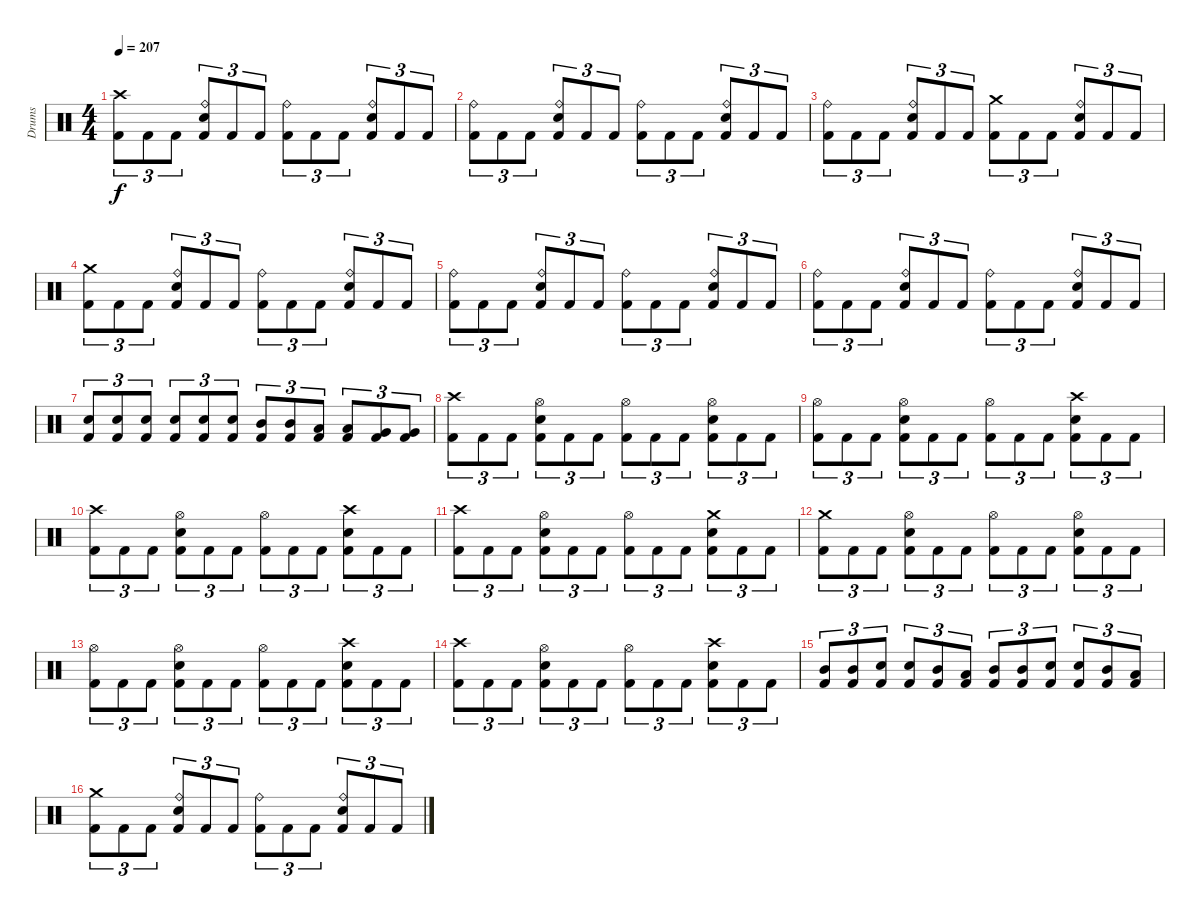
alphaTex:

\track ("Drums" "Drums") {instrument percussion}
\staff {score}
\articulation defaults
\ts (4 4)
\tempo 207
\clef neutral
\ks c
("Crash high (hit)" "Kick (hit) 2").8{tu (3 2) dy f} "Kick (hit) 2".8{tu (3 2)} "Kick (hit) 2".8{tu (3 2)} ("Ride (bell)" "Electric Snare (hit)" "Kick (hit) 2").8{tu (3 2)} "Kick (hit) 2".8{tu (3 2)} "Kick (hit) 2".8{tu (3 2)} ("Ride (bell)" "Kick (hit) 2").8{tu (3 2)} "Kick (hit) 2".8{tu (3 2)} "Kick (hit) 2".8{tu (3 2)} ("Ride (bell)" "Electric Snare (hit)" "Kick (hit) 2").8{tu (3 2)} "Kick (hit) 2".8{tu (3 2)} "Kick (hit) 2".8{tu (3 2)} |
("Ride (bell)" "Kick (hit) 2").8{tu (3 2)} "Kick (hit) 2".8{tu (3 2)} "Kick (hit) 2".8{tu (3 2)} ("Ride (bell)" "Electric Snare (hit)" "Kick (hit) 2").8{tu (3 2)} "Kick (hit) 2".8{tu (3 2)} "Kick (hit) 2".8{tu (3 2)} ("Ride (bell)" "Kick (hit) 2").8{tu (3 2)} "Kick (hit) 2".8{tu (3 2)} "Kick (hit) 2".8{tu (3 2)} ("Ride (bell)" "Electric Snare (hit)" "Kick (hit) 2").8{tu (3 2)} "Kick (hit) 2".8{tu (3 2)} "Kick (hit) 2".8{tu (3 2)} |
("Ride (bell)" "Kick (hit) 2").8{tu (3 2)} "Kick (hit) 2".8{tu (3 2)} "Kick (hit) 2".8{tu (3 2)} ("Ride (bell)" "Electric Snare (hit)" "Kick (hit) 2").8{tu (3 2)} "Kick (hit) 2".8{tu (3 2)} "Kick (hit) 2".8{tu (3 2)} ("Crash medium (hit)" "Kick (hit) 2").8{tu (3 2)} "Kick (hit) 2".8{tu (3 2)} "Kick (hit) 2".8{tu (3 2)} ("Ride (bell)" "Electric Snare (hit)" "Kick (hit) 2").8{tu (3 2)} "Kick (hit) 2".8{tu (3 2)} "Kick (hit) 2".8{tu (3 2)} |
("Crash medium (hit)" "Kick (hit) 2").8{tu (3 2)} "Kick (hit) 2".8{tu (3 2)} "Kick (hit) 2".8{tu (3 2)} ("Ride (bell)" "Electric Snare (hit)" "Kick (hit) 2").8{tu (3 2)} "Kick (hit) 2".8{tu (3 2)} "Kick (hit) 2".8{tu (3 2)} ("Ride (bell)" "Kick (hit) 2").8{tu (3 2)} "Kick (hit) 2".8{tu (3 2)} "Kick (hit) 2".8{tu (3 2)} ("Ride (bell)" "Electric Snare (hit)" "Kick (hit) 2").8{tu (3 2)} "Kick (hit) 2".8{tu (3 2)} "Kick (hit) 2".8{tu (3 2)} |
("Ride (bell)" "Kick (hit) 2").8{tu (3 2)} "Kick (hit) 2".8{tu (3 2)} "Kick (hit) 2".8{tu (3 2)} ("Ride (bell)" "Electric Snare (hit)" "Kick (hit) 2").8{tu (3 2)} "Kick (hit) 2".8{tu (3 2)} "Kick (hit) 2".8{tu (3 2)} ("Ride (bell)" "Kick (hit) 2").8{tu (3 2)} "Kick (hit) 2".8{tu (3 2)} "Kick (hit) 2".8{tu (3 2)} ("Ride (bell)" "Electric Snare (hit)" "Kick (hit) 2").8{tu (3 2)} "Kick (hit) 2".8{tu (3 2)} "Kick (hit) 2".8{tu (3 2)} |
("Ride (bell)" "Kick (hit) 2").8{tu (3 2)} "Kick (hit) 2".8{tu (3 2)} "Kick (hit) 2".8{tu (3 2)} ("Ride (bell)" "Electric Snare (hit)" "Kick (hit) 2").8{tu (3 2)} "Kick (hit) 2".8{tu (3 2)} "Kick (hit) 2".8{tu (3 2)} ("Ride (bell)" "Kick (hit) 2").8{tu (3 2)} "Kick (hit) 2".8{tu (3 2)} "Kick (hit) 2".8{tu (3 2)} ("Ride (bell)" "Electric Snare (hit)" "Kick (hit) 2").8{tu (3 2)} "Kick (hit) 2".8{tu (3 2)} "Kick (hit) 2".8{tu (3 2)} |
("Electric Snare (hit)" "Kick (hit) 2").8{tu (3 2)} ("Electric Snare (hit)" "Kick (hit) 2").8{tu (3 2)} ("Electric Snare (hit)" "Kick (hit) 2").8{tu (3 2)} ("Electric Snare (hit)" "Kick (hit) 2").8{tu (3 2)} ("Electric Snare (hit)" "Kick (hit) 2").8{tu (3 2)} ("Electric Snare (hit)" "Kick (hit) 2").8{tu (3 2)} ("Mid Tom (hit)" "Kick (hit) 2").8{tu (3 2)} ("Mid Tom (hit)" "Kick (hit) 2").8{tu (3 2)} ("Low Tom (hit)" "Kick (hit) 2").8{tu (3 2)} ("Low Tom (hit)" "Kick (hit) 2").8{tu (3 2)} ("Very Low Tom (hit)" "Kick (hit) 2").8{tu (3 2)} ("Very Low Tom (hit)" "Kick (hit) 2").8{tu (3 2)} |
("Crash high (hit)" "Kick (hit) 2").8{tu (3 2)} "Kick (hit) 2".8{tu (3 2)} "Kick (hit) 2".8{tu (3 2)} ("Hi-Hat (open)" "Electric Snare (hit)" "Kick (hit) 2").8{tu (3 2)} "Kick (hit) 2".8{tu (3 2)} "Kick (hit) 2".8{tu (3 2)} ("Hi-Hat (open)" "Kick (hit) 2").8{tu (3 2)} "Kick (hit) 2".8{tu (3 2)} "Kick (hit) 2".8{tu (3 2)} ("Hi-Hat (open)" "Electric Snare (hit)" "Kick (hit) 2").8{tu (3 2)} "Kick (hit) 2".8{tu (3 2)} "Kick (hit) 2".8{tu (3 2)} |
("Hi-Hat (open)" "Kick (hit) 2").8{tu (3 2)} "Kick (hit) 2".8{tu (3 2)} "Kick (hit) 2".8{tu (3 2)} ("Hi-Hat (open)" "Electric Snare (hit)" "Kick (hit) 2").8{tu (3 2)} "Kick (hit) 2".8{tu (3 2)} "Kick (hit) 2".8{tu (3 2)} ("Hi-Hat (open)" "Kick (hit) 2").8{tu (3 2)} "Kick (hit) 2".8{tu (3 2)} "Kick (hit) 2".8{tu (3 2)} ("Crash high (hit)" "Electric Snare (hit)" "Kick (hit) 2").8{tu (3 2)} "Kick (hit) 2".8{tu (3 2)} "Kick (hit) 2".8{tu (3 2)} |
("Crash high (hit)" "Kick (hit) 2").8{tu (3 2)} "Kick (hit) 2".8{tu (3 2)} "Kick (hit) 2".8{tu (3 2)} ("Hi-Hat (open)" "Electric Snare (hit)" "Kick (hit) 2").8{tu (3 2)} "Kick (hit) 2".8{tu (3 2)} "Kick (hit) 2".8{tu (3 2)} ("Hi-Hat (open)" "Kick (hit) 2").8{tu (3 2)} "Kick (hit) 2".8{tu (3 2)} "Kick (hit) 2".8{tu (3 2)} ("Crash high (hit)" "Electric Snare (hit)" "Kick (hit) 2").8{tu (3 2)} "Kick (hit) 2".8{tu (3 2)} "Kick (hit) 2".8{tu (3 2)} |
("Crash high (hit)" "Kick (hit) 2").8{tu (3 2)} "Kick (hit) 2".8{tu (3 2)} "Kick (hit) 2".8{tu (3 2)} ("Hi-Hat (open)" "Electric Snare (hit)" "Kick (hit) 2").8{tu (3 2)} "Kick (hit) 2".8{tu (3 2)} "Kick (hit) 2".8{tu (3 2)} ("Hi-Hat (open)" "Kick (hit) 2").8{tu (3 2)} "Kick (hit) 2".8{tu (3 2)} "Kick (hit) 2".8{tu (3 2)} ("Crash medium (hit)" "Electric Snare (hit)" "Kick (hit) 2").8{tu (3 2)} "Kick (hit) 2".8{tu (3 2)} "Kick (hit) 2".8{tu (3 2)} |
("Crash medium (hit)" "Kick (hit) 2").8{tu (3 2)} "Kick (hit) 2".8{tu (3 2)} "Kick (hit) 2".8{tu (3 2)} ("Hi-Hat (open)" "Electric Snare (hit)" "Kick (hit) 2").8{tu (3 2)} "Kick (hit) 2".8{tu (3 2)} "Kick (hit) 2".8{tu (3 2)} ("Hi-Hat (open)" "Kick (hit) 2").8{tu (3 2)} "Kick (hit) 2".8{tu (3 2)} "Kick (hit) 2".8{tu (3 2)} ("Hi-Hat (open)" "Electric Snare (hit)" "Kick (hit) 2").8{tu (3 2)} "Kick (hit) 2".8{tu (3 2)} "Kick (hit) 2".8{tu (3 2)} |
("Hi-Hat (open)" "Kick (hit) 2").8{tu (3 2)} "Kick (hit) 2".8{tu (3 2)} "Kick (hit) 2".8{tu (3 2)} ("Hi-Hat (open)" "Electric Snare (hit)" "Kick (hit) 2").8{tu (3 2)} "Kick (hit) 2".8{tu (3 2)} "Kick (hit) 2".8{tu (3 2)} ("Hi-Hat (open)" "Kick (hit) 2").8{tu (3 2)} "Kick (hit) 2".8{tu (3 2)} "Kick (hit) 2".8{tu (3 2)} ("Crash high (hit)" "Electric Snare (hit)" "Kick (hit) 2").8{tu (3 2)} "Kick (hit) 2".8{tu (3 2)} "Kick (hit) 2".8{tu (3 2)} |
("Crash high (hit)" "Kick (hit) 2").8{tu (3 2)} "Kick (hit) 2".8{tu (3 2)} "Kick (hit) 2".8{tu (3 2)} ("Hi-Hat (open)" "Electric Snare (hit)" "Kick (hit) 2").8{tu (3 2)} "Kick (hit) 2".8{tu (3 2)} "Kick (hit) 2".8{tu (3 2)} ("Hi-Hat (open)" "Kick (hit) 2").8{tu (3 2)} "Kick (hit) 2".8{tu (3 2)} "Kick (hit) 2".8{tu (3 2)} ("Crash high (hit)" "Electric Snare (hit)" "Kick (hit) 2").8{tu (3 2)} "Kick (hit) 2".8{tu (3 2)} "Kick (hit) 2".8{tu (3 2)} |
("Mid Tom (hit)" "Kick (hit) 2").8{tu (3 2)} ("Mid Tom (hit)" "Kick (hit) 2").8{tu (3 2)} ("Electric Snare (hit)" "Kick (hit) 2").8{tu (3 2)} ("Electric Snare (hit)" "Kick (hit) 2").8{tu (3 2)} ("Mid Tom (hit)" "Kick (hit) 2").8{tu (3 2)} ("Low Tom (hit)" "Kick (hit) 2").8{tu (3 2)} ("Mid Tom (hit)" "Kick (hit) 2").8{tu (3 2)} ("Mid Tom (hit)" "Kick (hit) 2").8{tu (3 2)} ("Electric Snare (hit)" "Kick (hit) 2").8{tu (3 2)} ("Electric Snare (hit)" "Kick (hit) 2").8{tu (3 2)} ("Mid Tom (hit)" "Kick (hit) 2").8{tu (3 2)} ("Low Tom (hit)" "Kick (hit) 2").8{tu (3 2)} |
("Crash medium (hit)" "Kick (hit) 2").8{tu (3 2)} "Kick (hit) 2".8{tu (3 2)} "Kick (hit) 2".8{tu (3 2)} ("Ride (bell)" "Electric Snare (hit)" "Kick (hit) 2").8{tu (3 2)} "Kick (hit) 2".8{tu (3 2)} "Kick (hit) 2".8{tu (3 2)} ("Ride (bell)" "Kick (hit) 2").8{tu (3 2)} "Kick (hit) 2".8{tu (3 2)} "Kick (hit) 2".8{tu (3 2)} ("Ride (bell)" "Electric Snare (hit)" "Kick (hit) 2").8{tu (3 2)} "Kick (hit) 2".8{tu (3 2)} "Kick (hit) 2".8{tu (3 2)}
